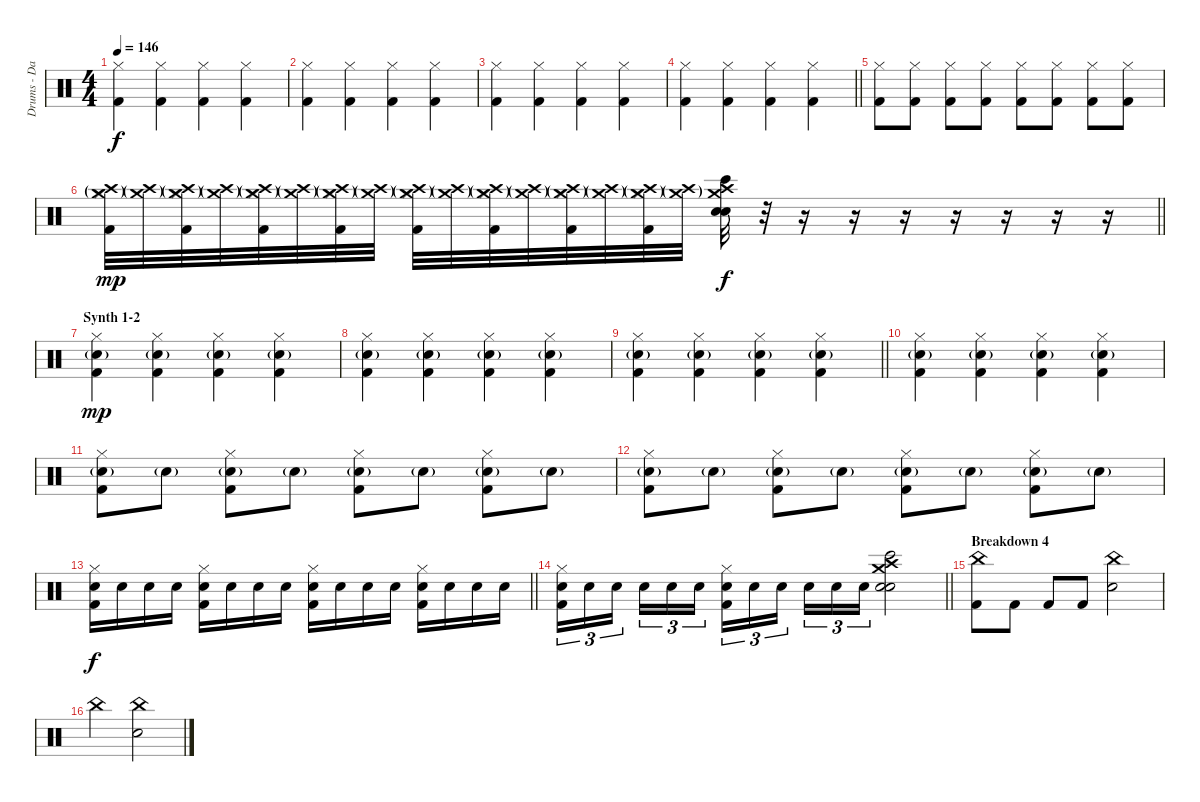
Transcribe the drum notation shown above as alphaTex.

\track ("Drums - DaDa" "Drums - Da") {instrument percussion}
\staff {score}
\articulation defaults
\ts (4 4)
\tempo 146
\clef neutral
\ks c
("Hi-Hat (closed)" "Kick (hit) 2").4{dy f} ("Hi-Hat (closed)" "Kick (hit) 2").4{volume 13} ("Hi-Hat (closed)" "Kick (hit) 2").4 ("Hi-Hat (closed)" "Kick (hit) 2").4 |
("Hi-Hat (closed)" "Kick (hit) 2").4 ("Hi-Hat (closed)" "Kick (hit) 2").4 ("Hi-Hat (closed)" "Kick (hit) 2").4 ("Hi-Hat (closed)" "Kick (hit) 2").4 |
("Hi-Hat (closed)" "Kick (hit) 2").4 ("Hi-Hat (closed)" "Kick (hit) 2").4 ("Hi-Hat (closed)" "Kick (hit) 2").4 ("Hi-Hat (closed)" "Kick (hit) 2").4 |
\barLineRight lightlight
("Hi-Hat (closed)" "Kick (hit) 2").4 ("Hi-Hat (closed)" "Kick (hit) 2").4 ("Hi-Hat (closed)" "Kick (hit) 2").4 ("Hi-Hat (closed)" "Kick (hit) 2").4 |
("Hi-Hat (closed)" "Kick (hit) 2").8 ("Hi-Hat (closed)" "Kick (hit) 2").8 ("Hi-Hat (closed)" "Kick (hit) 2").8 ("Hi-Hat (closed)" "Kick (hit) 2").8 ("Hi-Hat (closed)" "Kick (hit) 2").8 ("Hi-Hat (closed)" "Kick (hit) 2").8 ("Hi-Hat (closed)" "Kick (hit) 2").8 ("Hi-Hat (closed)" "Kick (hit) 2").8 |
\barLineRight lightlight
("Crash medium (hit)"{g} "Crash high (hit)"{g} "Hi-Hat (closed)" "Kick (hit) 2").32{dy mp} ("Crash medium (hit)"{g} "Crash high (hit)"{g}).32 ("Crash medium (hit)"{g} "Crash high (hit)"{g} "Hi-Hat (closed)" "Kick (hit) 2").32 ("Crash medium (hit)"{g} "Crash high (hit)"{g}).32 ("Crash medium (hit)"{g} "Crash high (hit)"{g} "Hi-Hat (closed)" "Kick (hit) 2").32 ("Crash medium (hit)"{g} "Crash high (hit)"{g}).32 ("Crash medium (hit)"{g} "Crash high (hit)"{g} "Hi-Hat (closed)" "Kick (hit) 2").32 ("Crash medium (hit)"{g} "Crash high (hit)"{g}).32 ("Crash medium (hit)"{g} "Crash high (hit)"{g} "Hi-Hat (closed)" "Kick (hit) 2").32 ("Crash medium (hit)"{g} "Crash high (hit)"{g}).32 ("Crash medium (hit)"{g} "Crash high (hit)"{g} "Hi-Hat (closed)" "Kick (hit) 2").32 ("Crash medium (hit)"{g} "Crash high (hit)"{g}).32 ("Crash medium (hit)"{g} "Crash high (hit)"{g} "Hi-Hat (closed)" "Kick (hit) 2").32 ("Crash medium (hit)"{g} "Crash high (hit)"{g}).32 ("Crash medium (hit)"{g} "Crash high (hit)"{g} "Hi-Hat (closed)" "Kick (hit) 2").32 ("Crash medium (hit)"{g} "Crash high (hit)"{g}).32 ("Crash medium (hit)" "Crash high (hit)" "Electric Snare (hit)" "Snare (hit) 2" "Bongo High (hit)").32{dy f} r.32 r.16 r.16 r.16 r.16 r.16 r.16 r.16 |
\section ("" "Synth 1-2")
("Snare (hit) 2"{g} "Hi-Hat (closed)" "Kick (hit) 2").4{dy mp} ("Snare (hit) 2"{g} "Hi-Hat (closed)" "Kick (hit) 2").4 ("Snare (hit) 2"{g} "Hi-Hat (closed)" "Kick (hit) 2").4 ("Snare (hit) 2"{g} "Hi-Hat (closed)" "Kick (hit) 2").4 |
("Snare (hit) 2"{g} "Hi-Hat (closed)" "Kick (hit) 2").4 ("Snare (hit) 2"{g} "Hi-Hat (closed)" "Kick (hit) 2").4 ("Snare (hit) 2"{g} "Hi-Hat (closed)" "Kick (hit) 2").4 ("Snare (hit) 2"{g} "Hi-Hat (closed)" "Kick (hit) 2").4 |
\barLineRight lightlight
("Snare (hit) 2"{g} "Hi-Hat (closed)" "Kick (hit) 2").4 ("Snare (hit) 2"{g} "Hi-Hat (closed)" "Kick (hit) 2").4 ("Snare (hit) 2"{g} "Hi-Hat (closed)" "Kick (hit) 2").4 ("Snare (hit) 2"{g} "Hi-Hat (closed)" "Kick (hit) 2").4 |
("Snare (hit) 2"{g} "Hi-Hat (closed)" "Kick (hit) 2").4 ("Snare (hit) 2"{g} "Hi-Hat (closed)" "Kick (hit) 2").4 ("Snare (hit) 2"{g} "Hi-Hat (closed)" "Kick (hit) 2").4 ("Snare (hit) 2"{g} "Hi-Hat (closed)" "Kick (hit) 2").4 |
("Snare (hit) 2"{g} "Hi-Hat (closed)" "Kick (hit) 2").8 "Snare (hit) 2"{g}.8 ("Snare (hit) 2"{g} "Hi-Hat (closed)" "Kick (hit) 2").8 "Snare (hit) 2"{g}.8 ("Snare (hit) 2"{g} "Hi-Hat (closed)" "Kick (hit) 2").8 "Snare (hit) 2"{g}.8 ("Snare (hit) 2"{g} "Hi-Hat (closed)" "Kick (hit) 2").8 "Snare (hit) 2"{g}.8 |
("Snare (hit) 2"{g} "Hi-Hat (closed)" "Kick (hit) 2").8 "Snare (hit) 2"{g}.8 ("Snare (hit) 2"{g} "Hi-Hat (closed)" "Kick (hit) 2").8 "Snare (hit) 2"{g}.8 ("Snare (hit) 2"{g} "Hi-Hat (closed)" "Kick (hit) 2").8 "Snare (hit) 2"{g}.8 ("Snare (hit) 2"{g} "Hi-Hat (closed)" "Kick (hit) 2").8 "Snare (hit) 2"{g}.8 |
\barLineRight lightlight
("Snare (hit) 2" "Hi-Hat (closed)" "Kick (hit) 2").16{dy f} "Snare (hit) 2".16 "Snare (hit) 2".16 "Snare (hit) 2".16 ("Snare (hit) 2" "Hi-Hat (closed)" "Kick (hit) 2").16 "Snare (hit) 2".16 "Snare (hit) 2".16 "Snare (hit) 2".16 ("Snare (hit) 2" "Hi-Hat (closed)" "Kick (hit) 2").16 "Snare (hit) 2".16 "Snare (hit) 2".16 "Snare (hit) 2".16 ("Snare (hit) 2" "Hi-Hat (closed)" "Kick (hit) 2").16 "Snare (hit) 2".16 "Snare (hit) 2".16 "Snare (hit) 2".16 |
\barLineRight lightlight
("Snare (hit) 2" "Hi-Hat (closed)" "Kick (hit) 2").16{tu (3 2)} "Snare (hit) 2".16{tu (3 2)} "Snare (hit) 2".16{tu (3 2) beam splitsecondary} "Snare (hit) 2".16{tu (3 2)} "Snare (hit) 2".16{tu (3 2)} "Snare (hit) 2".16{tu (3 2)} ("Snare (hit) 2" "Hi-Hat (closed)" "Kick (hit) 2").16{tu (3 2)} "Snare (hit) 2".16{tu (3 2)} "Snare (hit) 2".16{tu (3 2) beam splitsecondary} "Snare (hit) 2".16{tu (3 2)} "Snare (hit) 2".16{tu (3 2)} "Snare (hit) 2".16{tu (3 2)} ("Crash medium (hit)" "Crash high (hit)" "Electric Snare (hit)" "Snare (hit) 2" "Bongo High (hit)").2 |
\section ("" "Breakdown 4")
("China (hit)" "Kick (hit) 2").8 "Kick (hit) 2".8 "Kick (hit) 2".8 "Kick (hit) 2".8 ("China (hit)" "Electric Snare (hit)").2 |
"China (hit)".2 ("China (hit)" "Electric Snare (hit)").2
